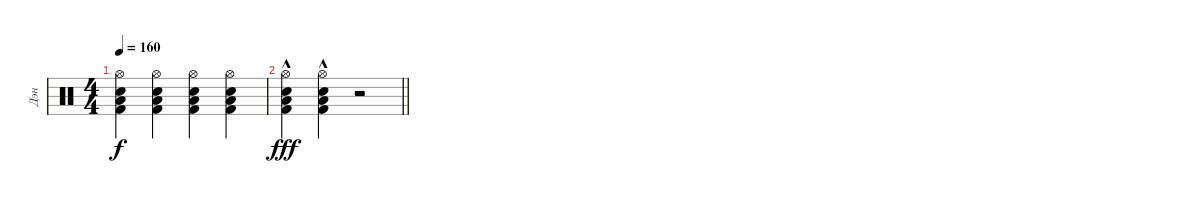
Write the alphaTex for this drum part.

\track ("Дэн" "Дэн") {instrument percussion}
\staff {score}
\articulation defaults
\ts (4 4)
\tempo 160
\clef neutral
\ks c
("Hi-Hat (open)" "Electric Snare (hit)" "Low Tom (hit)" "Kick (hit) 2").4{dy f} ("Hi-Hat (open)" "Electric Snare (hit)" "Low Tom (hit)" "Kick (hit) 2").4 ("Hi-Hat (open)" "Electric Snare (hit)" "Low Tom (hit)" "Kick (hit) 2").4 ("Hi-Hat (open)" "Electric Snare (hit)" "Low Tom (hit)" "Kick (hit) 2").4 |
\barLineRight lightlight
("Hi-Hat (open)"{hac} "Electric Snare (hit)"{hac} "Low Tom (hit)" "Kick (hit) 2").4{dy fff} ("Hi-Hat (open)"{hac} "Electric Snare (hit)"{hac} "Low Tom (hit)" "Kick (hit) 2").4 r.2
